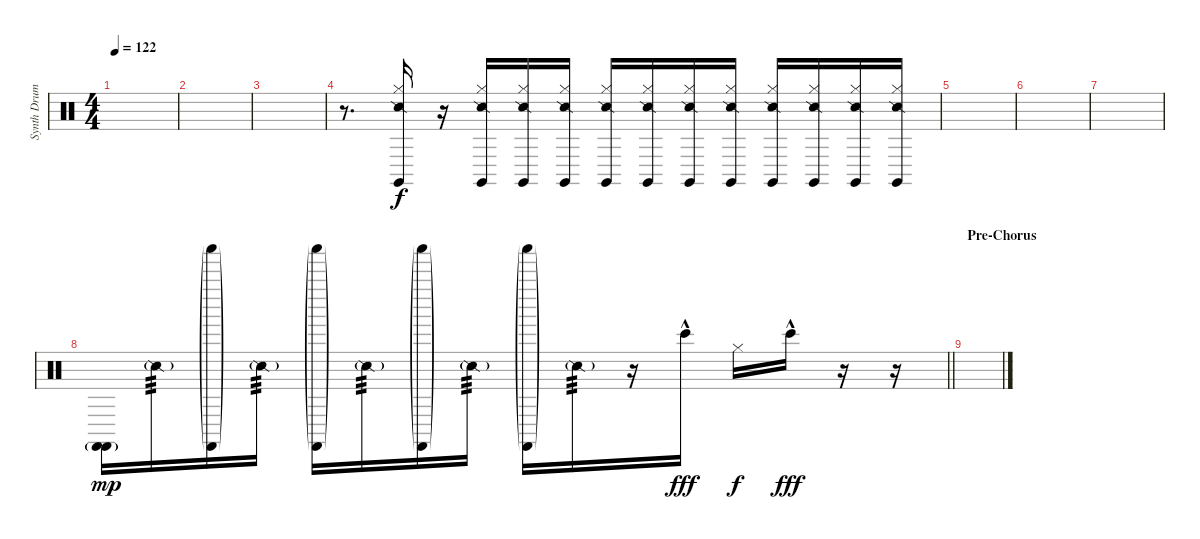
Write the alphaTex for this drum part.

\track ("Synth Drums" "Synth Drum") {instrument percussion}
\staff {score}
\articulation defaults
\ts (4 4)
\tempo 122
\clef neutral
\ks c
|
|
|
r.8{d} ("Hi-Hat (closed)" "Snare (side stick) 2" "Claves (hit)").16 r.16 ("Hi-Hat (closed)" "Snare (side stick) 2" "Claves (hit)").16 ("Hi-Hat (closed)" "Snare (side stick) 2" "Claves (hit)").16 ("Hi-Hat (closed)" "Snare (side stick) 2" "Claves (hit)").16 ("Hi-Hat (closed)" "Snare (side stick) 2" "Claves (hit)").16 ("Hi-Hat (closed)" "Snare (side stick) 2" "Claves (hit)").16 ("Hi-Hat (closed)" "Snare (side stick) 2" "Claves (hit)").16 ("Hi-Hat (closed)" "Snare (side stick) 2" "Claves (hit)").16 ("Hi-Hat (closed)" "Snare (side stick) 2" "Claves (hit)").16 ("Hi-Hat (closed)" "Snare (side stick) 2" "Claves (hit)").16 ("Hi-Hat (closed)" "Snare (side stick) 2" "Claves (hit)").16 ("Hi-Hat (closed)" "Snare (side stick) 2" "Claves (hit)").16 |
|
|
|
\barLineRight lightlight
("Castanets (hit)"{g} "Castanets (hit)"{g}).16{dy mp} "Snare (side stick) 2"{g}.16{tp 3} ("Castanets (hit)"{g} "Shaker (hit)"{g}).16 "Snare (side stick) 2"{g}.16{tp 3} ("Castanets (hit)"{g} "Shaker (hit)"{g}).16 "Snare (side stick) 2"{g}.16{tp 3} ("Castanets (hit)"{g} "Shaker (hit)"{g}).16 "Snare (side stick) 2"{g}.16{tp 3} ("Castanets (hit)"{g} "Shaker (hit)"{g}).16 "Snare (side stick) 2"{g}.16{tp 3} r.16 "Bongo High (hit)"{hac}.16{dy fff} "Hi-Hat (closed)".16{dy f} "Bongo High (hit)"{hac}.16{dy fff} r.16 r.16 |
\section ("" "Pre-Chorus")
